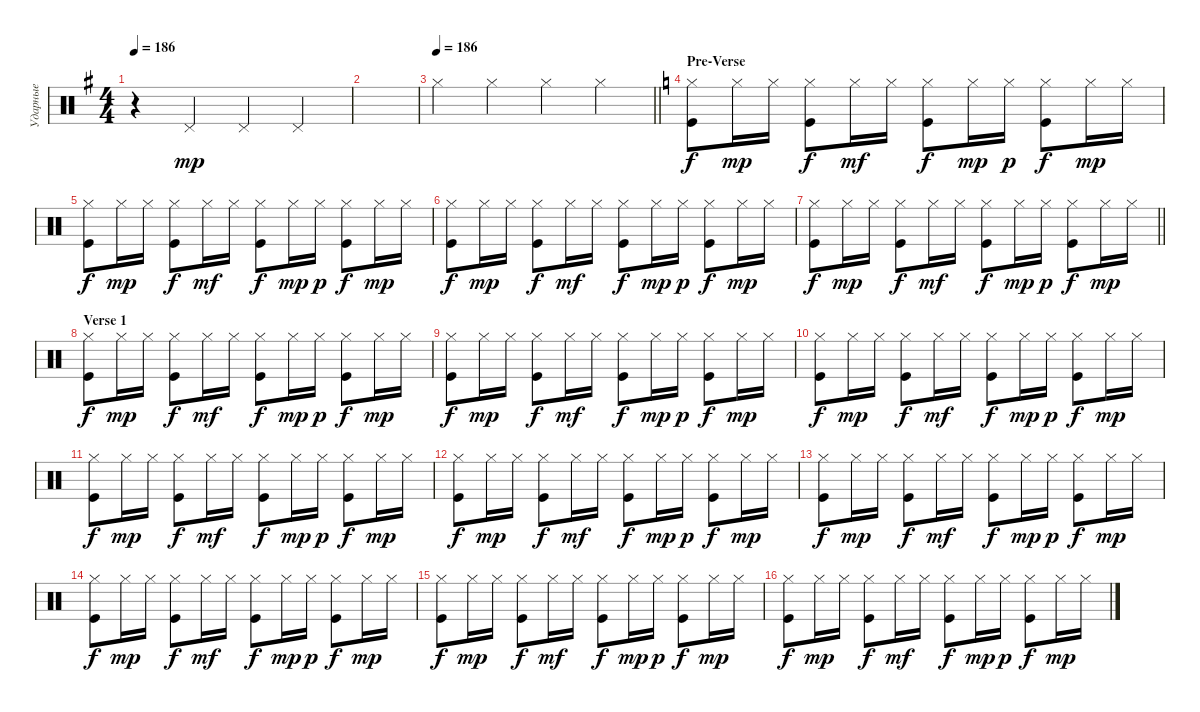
\track ("Ударные" "Ударные") {instrument percussion}
\staff {score}
\articulation defaults
\ts (4 4)
\tempo 186
\clef neutral
\ks eminor
r.4{dy f} "Pedal Hi-Hat (hit)".4{dy mp} "Pedal Hi-Hat (hit)".4 "Pedal Hi-Hat (hit)".4 |
|
\tempo 186
\barLineRight lightlight "Hi-Hat (closed)".4 "Hi-Hat (closed)".4 "Hi-Hat (closed)".4 "Hi-Hat (closed)".4
|
\section ("" "Pre-Verse")
\ks aminor
("Hi-Hat (closed)" "Kick (hit)").8{dy f} "Hi-Hat (closed)".16{dy mp} "Hi-Hat (closed)".16 ("Kick (hit)" "Hi-Hat (closed)").8{dy f} "Hi-Hat (closed)".16{dy mf} "Hi-Hat (closed)".16 ("Kick (hit)" "Hi-Hat (closed)").8{dy f} "Hi-Hat (closed)".16{dy mp} "Hi-Hat (closed)".16{dy p} ("Kick (hit)" "Hi-Hat (closed)").8{dy f} "Hi-Hat (closed)".16{dy mp} "Hi-Hat (closed)".16 |
("Hi-Hat (closed)" "Kick (hit)").8{dy f} "Hi-Hat (closed)".16{dy mp} "Hi-Hat (closed)".16 ("Kick (hit)" "Hi-Hat (closed)").8{dy f} "Hi-Hat (closed)".16{dy mf} "Hi-Hat (closed)".16 ("Kick (hit)" "Hi-Hat (closed)").8{dy f} "Hi-Hat (closed)".16{dy mp} "Hi-Hat (closed)".16{dy p} ("Kick (hit)" "Hi-Hat (closed)").8{dy f} "Hi-Hat (closed)".16{dy mp} "Hi-Hat (closed)".16 |
("Hi-Hat (closed)" "Kick (hit)").8{dy f} "Hi-Hat (closed)".16{dy mp} "Hi-Hat (closed)".16 ("Kick (hit)" "Hi-Hat (closed)").8{dy f} "Hi-Hat (closed)".16{dy mf} "Hi-Hat (closed)".16 ("Kick (hit)" "Hi-Hat (closed)").8{dy f} "Hi-Hat (closed)".16{dy mp} "Hi-Hat (closed)".16{dy p} ("Kick (hit)" "Hi-Hat (closed)").8{dy f} "Hi-Hat (closed)".16{dy mp} "Hi-Hat (closed)".16 |
\barLineRight lightlight
("Hi-Hat (closed)" "Kick (hit)").8{dy f} "Hi-Hat (closed)".16{dy mp} "Hi-Hat (closed)".16 ("Kick (hit)" "Hi-Hat (closed)").8{dy f} "Hi-Hat (closed)".16{dy mf} "Hi-Hat (closed)".16 ("Kick (hit)" "Hi-Hat (closed)").8{dy f} "Hi-Hat (closed)".16{dy mp} "Hi-Hat (closed)".16{dy p} ("Kick (hit)" "Hi-Hat (closed)").8{dy f} "Hi-Hat (closed)".16{dy mp} "Hi-Hat (closed)".16 |
\section ("" "Verse 1")
("Hi-Hat (closed)" "Kick (hit)").8{dy f} "Hi-Hat (closed)".16{dy mp} "Hi-Hat (closed)".16 ("Kick (hit)" "Hi-Hat (closed)").8{dy f} "Hi-Hat (closed)".16{dy mf} "Hi-Hat (closed)".16 ("Kick (hit)" "Hi-Hat (closed)").8{dy f} "Hi-Hat (closed)".16{dy mp} "Hi-Hat (closed)".16{dy p} ("Kick (hit)" "Hi-Hat (closed)").8{dy f} "Hi-Hat (closed)".16{dy mp} "Hi-Hat (closed)".16 |
("Hi-Hat (closed)" "Kick (hit)").8{dy f} "Hi-Hat (closed)".16{dy mp} "Hi-Hat (closed)".16 ("Kick (hit)" "Hi-Hat (closed)").8{dy f} "Hi-Hat (closed)".16{dy mf} "Hi-Hat (closed)".16 ("Kick (hit)" "Hi-Hat (closed)").8{dy f} "Hi-Hat (closed)".16{dy mp} "Hi-Hat (closed)".16{dy p} ("Kick (hit)" "Hi-Hat (closed)").8{dy f} "Hi-Hat (closed)".16{dy mp} "Hi-Hat (closed)".16 |
("Hi-Hat (closed)" "Kick (hit)").8{dy f} "Hi-Hat (closed)".16{dy mp} "Hi-Hat (closed)".16 ("Kick (hit)" "Hi-Hat (closed)").8{dy f} "Hi-Hat (closed)".16{dy mf} "Hi-Hat (closed)".16 ("Kick (hit)" "Hi-Hat (closed)").8{dy f} "Hi-Hat (closed)".16{dy mp} "Hi-Hat (closed)".16{dy p} ("Kick (hit)" "Hi-Hat (closed)").8{dy f} "Hi-Hat (closed)".16{dy mp} "Hi-Hat (closed)".16 |
("Hi-Hat (closed)" "Kick (hit)").8{dy f} "Hi-Hat (closed)".16{dy mp} "Hi-Hat (closed)".16 ("Kick (hit)" "Hi-Hat (closed)").8{dy f} "Hi-Hat (closed)".16{dy mf} "Hi-Hat (closed)".16 ("Kick (hit)" "Hi-Hat (closed)").8{dy f} "Hi-Hat (closed)".16{dy mp} "Hi-Hat (closed)".16{dy p} ("Kick (hit)" "Hi-Hat (closed)").8{dy f} "Hi-Hat (closed)".16{dy mp} "Hi-Hat (closed)".16 |
("Hi-Hat (closed)" "Kick (hit)").8{dy f} "Hi-Hat (closed)".16{dy mp} "Hi-Hat (closed)".16 ("Kick (hit)" "Hi-Hat (closed)").8{dy f} "Hi-Hat (closed)".16{dy mf} "Hi-Hat (closed)".16 ("Kick (hit)" "Hi-Hat (closed)").8{dy f} "Hi-Hat (closed)".16{dy mp} "Hi-Hat (closed)".16{dy p} ("Kick (hit)" "Hi-Hat (closed)").8{dy f} "Hi-Hat (closed)".16{dy mp} "Hi-Hat (closed)".16 |
("Hi-Hat (closed)" "Kick (hit)").8{dy f} "Hi-Hat (closed)".16{dy mp} "Hi-Hat (closed)".16 ("Kick (hit)" "Hi-Hat (closed)").8{dy f} "Hi-Hat (closed)".16{dy mf} "Hi-Hat (closed)".16 ("Kick (hit)" "Hi-Hat (closed)").8{dy f} "Hi-Hat (closed)".16{dy mp} "Hi-Hat (closed)".16{dy p} ("Kick (hit)" "Hi-Hat (closed)").8{dy f} "Hi-Hat (closed)".16{dy mp} "Hi-Hat (closed)".16 |
("Hi-Hat (closed)" "Kick (hit)").8{dy f} "Hi-Hat (closed)".16{dy mp} "Hi-Hat (closed)".16 ("Kick (hit)" "Hi-Hat (closed)").8{dy f} "Hi-Hat (closed)".16{dy mf} "Hi-Hat (closed)".16 ("Kick (hit)" "Hi-Hat (closed)").8{dy f} "Hi-Hat (closed)".16{dy mp} "Hi-Hat (closed)".16{dy p} ("Kick (hit)" "Hi-Hat (closed)").8{dy f} "Hi-Hat (closed)".16{dy mp} "Hi-Hat (closed)".16 |
("Hi-Hat (closed)" "Kick (hit)").8{dy f} "Hi-Hat (closed)".16{dy mp} "Hi-Hat (closed)".16 ("Kick (hit)" "Hi-Hat (closed)").8{dy f} "Hi-Hat (closed)".16{dy mf} "Hi-Hat (closed)".16 ("Kick (hit)" "Hi-Hat (closed)").8{dy f} "Hi-Hat (closed)".16{dy mp} "Hi-Hat (closed)".16{dy p} ("Kick (hit)" "Hi-Hat (closed)").8{dy f} "Hi-Hat (closed)".16{dy mp} "Hi-Hat (closed)".16 |
("Hi-Hat (closed)" "Kick (hit)").8{dy f} "Hi-Hat (closed)".16{dy mp} "Hi-Hat (closed)".16 ("Kick (hit)" "Hi-Hat (closed)").8{dy f} "Hi-Hat (closed)".16{dy mf} "Hi-Hat (closed)".16 ("Kick (hit)" "Hi-Hat (closed)").8{dy f} "Hi-Hat (closed)".16{dy mp} "Hi-Hat (closed)".16{dy p} ("Kick (hit)" "Hi-Hat (closed)").8{dy f} "Hi-Hat (closed)".16{dy mp} "Hi-Hat (closed)".16
